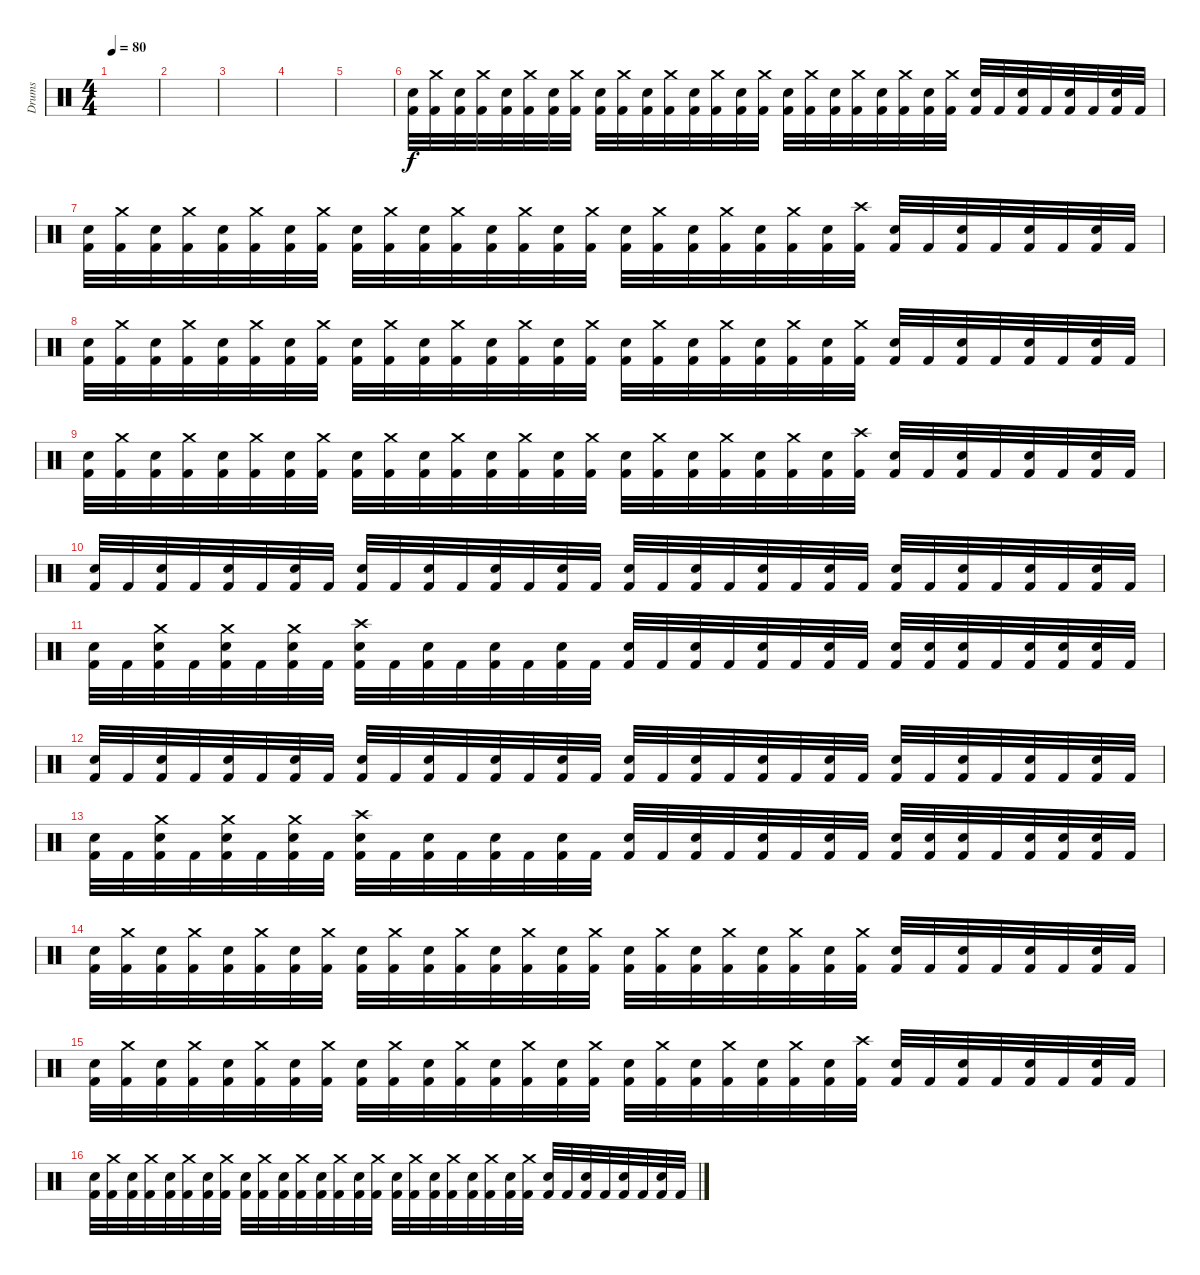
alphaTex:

\track ("Drums" "Drums") {instrument percussion}
\staff {score}
\articulation defaults
\ts (4 4)
\tempo 80
\clef neutral
\ks c
|
|
|
|
|
("Kick (hit) 2" "Snare (hit) 2").32 ("Kick (hit) 2" "Crash medium (hit)").32 ("Kick (hit) 2" "Snare (hit) 2").32 ("Kick (hit) 2" "Crash medium (hit)").32 ("Kick (hit) 2" "Snare (hit) 2").32 ("Kick (hit) 2" "Crash medium (hit)").32 ("Kick (hit) 2" "Snare (hit) 2").32 ("Kick (hit) 2" "Crash medium (hit)").32 ("Kick (hit) 2" "Snare (hit) 2").32 ("Kick (hit) 2" "Crash medium (hit)").32 ("Kick (hit) 2" "Snare (hit) 2").32 ("Kick (hit) 2" "Crash medium (hit)").32 ("Kick (hit) 2" "Snare (hit) 2").32 ("Kick (hit) 2" "Crash medium (hit)").32 ("Kick (hit) 2" "Snare (hit) 2").32 ("Kick (hit) 2" "Crash medium (hit)").32 ("Kick (hit) 2" "Snare (hit) 2").32 ("Kick (hit) 2" "Crash medium (hit)").32 ("Kick (hit) 2" "Snare (hit) 2").32 ("Kick (hit) 2" "Crash medium (hit)").32 ("Kick (hit) 2" "Snare (hit) 2").32 ("Kick (hit) 2" "Crash medium (hit)").32 ("Kick (hit) 2" "Snare (hit) 2").32 ("Kick (hit) 2" "Crash medium (hit)").32 ("Kick (hit) 2" "Snare (hit) 2").32 "Kick (hit) 2".32 ("Kick (hit) 2" "Snare (hit) 2").32 "Kick (hit) 2".32 ("Kick (hit) 2" "Snare (hit) 2").32 "Kick (hit) 2".32 ("Kick (hit) 2" "Snare (hit) 2").32 "Kick (hit) 2".32 |
("Kick (hit) 2" "Snare (hit) 2").32 ("Kick (hit) 2" "Crash medium (hit)").32 ("Kick (hit) 2" "Snare (hit) 2").32 ("Kick (hit) 2" "Crash medium (hit)").32 ("Kick (hit) 2" "Snare (hit) 2").32 ("Kick (hit) 2" "Crash medium (hit)").32 ("Kick (hit) 2" "Snare (hit) 2").32 ("Kick (hit) 2" "Crash medium (hit)").32 ("Kick (hit) 2" "Snare (hit) 2").32 ("Kick (hit) 2" "Crash medium (hit)").32 ("Kick (hit) 2" "Snare (hit) 2").32 ("Kick (hit) 2" "Crash medium (hit)").32 ("Kick (hit) 2" "Snare (hit) 2").32 ("Kick (hit) 2" "Crash medium (hit)").32 ("Kick (hit) 2" "Snare (hit) 2").32 ("Kick (hit) 2" "Crash medium (hit)").32 ("Kick (hit) 2" "Snare (hit) 2").32 ("Kick (hit) 2" "Crash medium (hit)").32 ("Kick (hit) 2" "Snare (hit) 2").32 ("Kick (hit) 2" "Crash medium (hit)").32 ("Kick (hit) 2" "Snare (hit) 2").32 ("Kick (hit) 2" "Crash medium (hit)").32 ("Kick (hit) 2" "Snare (hit) 2").32 ("Kick (hit) 2" "Crash high (hit)").32 ("Kick (hit) 2" "Snare (hit) 2").32 "Kick (hit) 2".32 ("Kick (hit) 2" "Snare (hit) 2").32 "Kick (hit) 2".32 ("Kick (hit) 2" "Snare (hit) 2").32 "Kick (hit) 2".32 ("Kick (hit) 2" "Snare (hit) 2").32 "Kick (hit) 2".32 |
("Kick (hit) 2" "Snare (hit) 2").32 ("Kick (hit) 2" "Crash medium (hit)").32 ("Kick (hit) 2" "Snare (hit) 2").32 ("Kick (hit) 2" "Crash medium (hit)").32 ("Kick (hit) 2" "Snare (hit) 2").32 ("Kick (hit) 2" "Crash medium (hit)").32 ("Kick (hit) 2" "Snare (hit) 2").32 ("Kick (hit) 2" "Crash medium (hit)").32 ("Kick (hit) 2" "Snare (hit) 2").32 ("Kick (hit) 2" "Crash medium (hit)").32 ("Kick (hit) 2" "Snare (hit) 2").32 ("Kick (hit) 2" "Crash medium (hit)").32 ("Kick (hit) 2" "Snare (hit) 2").32 ("Kick (hit) 2" "Crash medium (hit)").32 ("Kick (hit) 2" "Snare (hit) 2").32 ("Kick (hit) 2" "Crash medium (hit)").32 ("Kick (hit) 2" "Snare (hit) 2").32 ("Kick (hit) 2" "Crash medium (hit)").32 ("Kick (hit) 2" "Snare (hit) 2").32 ("Kick (hit) 2" "Crash medium (hit)").32 ("Kick (hit) 2" "Snare (hit) 2").32 ("Kick (hit) 2" "Crash medium (hit)").32 ("Kick (hit) 2" "Snare (hit) 2").32 ("Kick (hit) 2" "Crash medium (hit)").32 ("Kick (hit) 2" "Snare (hit) 2").32 "Kick (hit) 2".32 ("Kick (hit) 2" "Snare (hit) 2").32 "Kick (hit) 2".32 ("Kick (hit) 2" "Snare (hit) 2").32 "Kick (hit) 2".32 ("Kick (hit) 2" "Snare (hit) 2").32 "Kick (hit) 2".32 |
("Kick (hit) 2" "Snare (hit) 2").32 ("Kick (hit) 2" "Crash medium (hit)").32 ("Kick (hit) 2" "Snare (hit) 2").32 ("Kick (hit) 2" "Crash medium (hit)").32 ("Kick (hit) 2" "Snare (hit) 2").32 ("Kick (hit) 2" "Crash medium (hit)").32 ("Kick (hit) 2" "Snare (hit) 2").32 ("Kick (hit) 2" "Crash medium (hit)").32 ("Kick (hit) 2" "Snare (hit) 2").32 ("Kick (hit) 2" "Crash medium (hit)").32 ("Kick (hit) 2" "Snare (hit) 2").32 ("Kick (hit) 2" "Crash medium (hit)").32 ("Kick (hit) 2" "Snare (hit) 2").32 ("Kick (hit) 2" "Crash medium (hit)").32 ("Kick (hit) 2" "Snare (hit) 2").32 ("Kick (hit) 2" "Crash medium (hit)").32 ("Kick (hit) 2" "Snare (hit) 2").32 ("Kick (hit) 2" "Crash medium (hit)").32 ("Kick (hit) 2" "Snare (hit) 2").32 ("Kick (hit) 2" "Crash medium (hit)").32 ("Kick (hit) 2" "Snare (hit) 2").32 ("Kick (hit) 2" "Crash medium (hit)").32 ("Kick (hit) 2" "Snare (hit) 2").32 ("Kick (hit) 2" "Crash high (hit)").32 ("Kick (hit) 2" "Snare (hit) 2").32 "Kick (hit) 2".32 ("Kick (hit) 2" "Snare (hit) 2").32 "Kick (hit) 2".32 ("Kick (hit) 2" "Snare (hit) 2").32 "Kick (hit) 2".32 ("Kick (hit) 2" "Snare (hit) 2").32 "Kick (hit) 2".32 |
("Kick (hit) 2" "Snare (hit) 2").32 "Kick (hit) 2".32 ("Kick (hit) 2" "Snare (hit) 2").32 "Kick (hit) 2".32 ("Kick (hit) 2" "Snare (hit) 2").32 "Kick (hit) 2".32 ("Kick (hit) 2" "Snare (hit) 2").32 "Kick (hit) 2".32 ("Kick (hit) 2" "Snare (hit) 2").32 "Kick (hit) 2".32 ("Kick (hit) 2" "Snare (hit) 2").32 "Kick (hit) 2".32 ("Kick (hit) 2" "Snare (hit) 2").32 "Kick (hit) 2".32 ("Kick (hit) 2" "Snare (hit) 2").32 "Kick (hit) 2".32 ("Kick (hit) 2" "Snare (hit) 2").32 "Kick (hit) 2".32 ("Kick (hit) 2" "Snare (hit) 2").32 "Kick (hit) 2".32 ("Kick (hit) 2" "Snare (hit) 2").32 "Kick (hit) 2".32 ("Kick (hit) 2" "Snare (hit) 2").32 "Kick (hit) 2".32 ("Kick (hit) 2" "Snare (hit) 2").32 "Kick (hit) 2".32 ("Kick (hit) 2" "Snare (hit) 2").32 "Kick (hit) 2".32 ("Kick (hit) 2" "Snare (hit) 2").32 "Kick (hit) 2".32 ("Kick (hit) 2" "Snare (hit) 2").32 "Kick (hit) 2".32 |
("Kick (hit) 2" "Snare (hit) 2").32 "Kick (hit) 2".32 ("Kick (hit) 2" "Snare (hit) 2" "Crash medium (hit)").32 "Kick (hit) 2".32 ("Kick (hit) 2" "Snare (hit) 2" "Crash medium (hit)").32 "Kick (hit) 2".32 ("Kick (hit) 2" "Snare (hit) 2" "Crash medium (hit)").32 "Kick (hit) 2".32 ("Kick (hit) 2" "Snare (hit) 2" "Crash high (hit)").32 "Kick (hit) 2".32 ("Kick (hit) 2" "Snare (hit) 2").32 "Kick (hit) 2".32 ("Kick (hit) 2" "Snare (hit) 2").32 "Kick (hit) 2".32 ("Kick (hit) 2" "Snare (hit) 2").32 "Kick (hit) 2".32 ("Kick (hit) 2" "Snare (hit) 2").32 "Kick (hit) 2".32 ("Kick (hit) 2" "Snare (hit) 2").32 "Kick (hit) 2".32 ("Kick (hit) 2" "Snare (hit) 2").32 "Kick (hit) 2".32 ("Kick (hit) 2" "Snare (hit) 2").32 "Kick (hit) 2".32 ("Kick (hit) 2" "Snare (hit) 2").32 ("Kick (hit) 2" "Snare (hit) 2").32 ("Kick (hit) 2" "Snare (hit) 2").32 "Kick (hit) 2".32 ("Kick (hit) 2" "Snare (hit) 2").32 ("Kick (hit) 2" "Snare (hit) 2").32 ("Kick (hit) 2" "Snare (hit) 2").32 "Kick (hit) 2".32 |
("Kick (hit) 2" "Snare (hit) 2").32 "Kick (hit) 2".32 ("Kick (hit) 2" "Snare (hit) 2").32 "Kick (hit) 2".32 ("Kick (hit) 2" "Snare (hit) 2").32 "Kick (hit) 2".32 ("Kick (hit) 2" "Snare (hit) 2").32 "Kick (hit) 2".32 ("Kick (hit) 2" "Snare (hit) 2").32 "Kick (hit) 2".32 ("Kick (hit) 2" "Snare (hit) 2").32 "Kick (hit) 2".32 ("Kick (hit) 2" "Snare (hit) 2").32 "Kick (hit) 2".32 ("Kick (hit) 2" "Snare (hit) 2").32 "Kick (hit) 2".32 ("Kick (hit) 2" "Snare (hit) 2").32 "Kick (hit) 2".32 ("Kick (hit) 2" "Snare (hit) 2").32 "Kick (hit) 2".32 ("Kick (hit) 2" "Snare (hit) 2").32 "Kick (hit) 2".32 ("Kick (hit) 2" "Snare (hit) 2").32 "Kick (hit) 2".32 ("Kick (hit) 2" "Snare (hit) 2").32 "Kick (hit) 2".32 ("Kick (hit) 2" "Snare (hit) 2").32 "Kick (hit) 2".32 ("Kick (hit) 2" "Snare (hit) 2").32 "Kick (hit) 2".32 ("Kick (hit) 2" "Snare (hit) 2").32 "Kick (hit) 2".32 |
("Kick (hit) 2" "Snare (hit) 2").32 "Kick (hit) 2".32 ("Kick (hit) 2" "Snare (hit) 2" "Crash medium (hit)").32 "Kick (hit) 2".32 ("Kick (hit) 2" "Snare (hit) 2" "Crash medium (hit)").32 "Kick (hit) 2".32 ("Kick (hit) 2" "Snare (hit) 2" "Crash medium (hit)").32 "Kick (hit) 2".32 ("Kick (hit) 2" "Snare (hit) 2" "Crash high (hit)").32 "Kick (hit) 2".32 ("Kick (hit) 2" "Snare (hit) 2").32 "Kick (hit) 2".32 ("Kick (hit) 2" "Snare (hit) 2").32 "Kick (hit) 2".32 ("Kick (hit) 2" "Snare (hit) 2").32 "Kick (hit) 2".32 ("Kick (hit) 2" "Snare (hit) 2").32 "Kick (hit) 2".32 ("Kick (hit) 2" "Snare (hit) 2").32 "Kick (hit) 2".32 ("Kick (hit) 2" "Snare (hit) 2").32 "Kick (hit) 2".32 ("Kick (hit) 2" "Snare (hit) 2").32 "Kick (hit) 2".32 ("Kick (hit) 2" "Snare (hit) 2").32 ("Kick (hit) 2" "Snare (hit) 2").32 ("Kick (hit) 2" "Snare (hit) 2").32 "Kick (hit) 2".32 ("Kick (hit) 2" "Snare (hit) 2").32 ("Kick (hit) 2" "Snare (hit) 2").32 ("Kick (hit) 2" "Snare (hit) 2").32 "Kick (hit) 2".32 |
("Kick (hit) 2" "Snare (hit) 2").32 ("Kick (hit) 2" "Crash medium (hit)").32 ("Kick (hit) 2" "Snare (hit) 2").32 ("Kick (hit) 2" "Crash medium (hit)").32 ("Kick (hit) 2" "Snare (hit) 2").32 ("Kick (hit) 2" "Crash medium (hit)").32 ("Kick (hit) 2" "Snare (hit) 2").32 ("Kick (hit) 2" "Crash medium (hit)").32 ("Kick (hit) 2" "Snare (hit) 2").32 ("Kick (hit) 2" "Crash medium (hit)").32 ("Kick (hit) 2" "Snare (hit) 2").32 ("Kick (hit) 2" "Crash medium (hit)").32 ("Kick (hit) 2" "Snare (hit) 2").32 ("Kick (hit) 2" "Crash medium (hit)").32 ("Kick (hit) 2" "Snare (hit) 2").32 ("Kick (hit) 2" "Crash medium (hit)").32 ("Kick (hit) 2" "Snare (hit) 2").32 ("Kick (hit) 2" "Crash medium (hit)").32 ("Kick (hit) 2" "Snare (hit) 2").32 ("Kick (hit) 2" "Crash medium (hit)").32 ("Kick (hit) 2" "Snare (hit) 2").32 ("Kick (hit) 2" "Crash medium (hit)").32 ("Kick (hit) 2" "Snare (hit) 2").32 ("Kick (hit) 2" "Crash medium (hit)").32 ("Kick (hit) 2" "Snare (hit) 2").32 "Kick (hit) 2".32 ("Kick (hit) 2" "Snare (hit) 2").32 "Kick (hit) 2".32 ("Kick (hit) 2" "Snare (hit) 2").32 "Kick (hit) 2".32 ("Kick (hit) 2" "Snare (hit) 2").32 "Kick (hit) 2".32 |
("Kick (hit) 2" "Snare (hit) 2").32 ("Kick (hit) 2" "Crash medium (hit)").32 ("Kick (hit) 2" "Snare (hit) 2").32 ("Kick (hit) 2" "Crash medium (hit)").32 ("Kick (hit) 2" "Snare (hit) 2").32 ("Kick (hit) 2" "Crash medium (hit)").32 ("Kick (hit) 2" "Snare (hit) 2").32 ("Kick (hit) 2" "Crash medium (hit)").32 ("Kick (hit) 2" "Snare (hit) 2").32 ("Kick (hit) 2" "Crash medium (hit)").32 ("Kick (hit) 2" "Snare (hit) 2").32 ("Kick (hit) 2" "Crash medium (hit)").32 ("Kick (hit) 2" "Snare (hit) 2").32 ("Kick (hit) 2" "Crash medium (hit)").32 ("Kick (hit) 2" "Snare (hit) 2").32 ("Kick (hit) 2" "Crash medium (hit)").32 ("Kick (hit) 2" "Snare (hit) 2").32 ("Kick (hit) 2" "Crash medium (hit)").32 ("Kick (hit) 2" "Snare (hit) 2").32 ("Kick (hit) 2" "Crash medium (hit)").32 ("Kick (hit) 2" "Snare (hit) 2").32 ("Kick (hit) 2" "Crash medium (hit)").32 ("Kick (hit) 2" "Snare (hit) 2").32 ("Kick (hit) 2" "Crash high (hit)").32 ("Kick (hit) 2" "Snare (hit) 2").32 "Kick (hit) 2".32 ("Kick (hit) 2" "Snare (hit) 2").32 "Kick (hit) 2".32 ("Kick (hit) 2" "Snare (hit) 2").32 "Kick (hit) 2".32 ("Kick (hit) 2" "Snare (hit) 2").32 "Kick (hit) 2".32 |
("Kick (hit) 2" "Snare (hit) 2").32 ("Kick (hit) 2" "Crash medium (hit)").32 ("Kick (hit) 2" "Snare (hit) 2").32 ("Kick (hit) 2" "Crash medium (hit)").32 ("Kick (hit) 2" "Snare (hit) 2").32 ("Kick (hit) 2" "Crash medium (hit)").32 ("Kick (hit) 2" "Snare (hit) 2").32 ("Kick (hit) 2" "Crash medium (hit)").32 ("Kick (hit) 2" "Snare (hit) 2").32 ("Kick (hit) 2" "Crash medium (hit)").32 ("Kick (hit) 2" "Snare (hit) 2").32 ("Kick (hit) 2" "Crash medium (hit)").32 ("Kick (hit) 2" "Snare (hit) 2").32 ("Kick (hit) 2" "Crash medium (hit)").32 ("Kick (hit) 2" "Snare (hit) 2").32 ("Kick (hit) 2" "Crash medium (hit)").32 ("Kick (hit) 2" "Snare (hit) 2").32 ("Kick (hit) 2" "Crash medium (hit)").32 ("Kick (hit) 2" "Snare (hit) 2").32 ("Kick (hit) 2" "Crash medium (hit)").32 ("Kick (hit) 2" "Snare (hit) 2").32 ("Kick (hit) 2" "Crash medium (hit)").32 ("Kick (hit) 2" "Snare (hit) 2").32 ("Kick (hit) 2" "Crash medium (hit)").32 ("Kick (hit) 2" "Snare (hit) 2").32 "Kick (hit) 2".32 ("Kick (hit) 2" "Snare (hit) 2").32 "Kick (hit) 2".32 ("Kick (hit) 2" "Snare (hit) 2").32 "Kick (hit) 2".32 ("Kick (hit) 2" "Snare (hit) 2").32 "Kick (hit) 2".32
